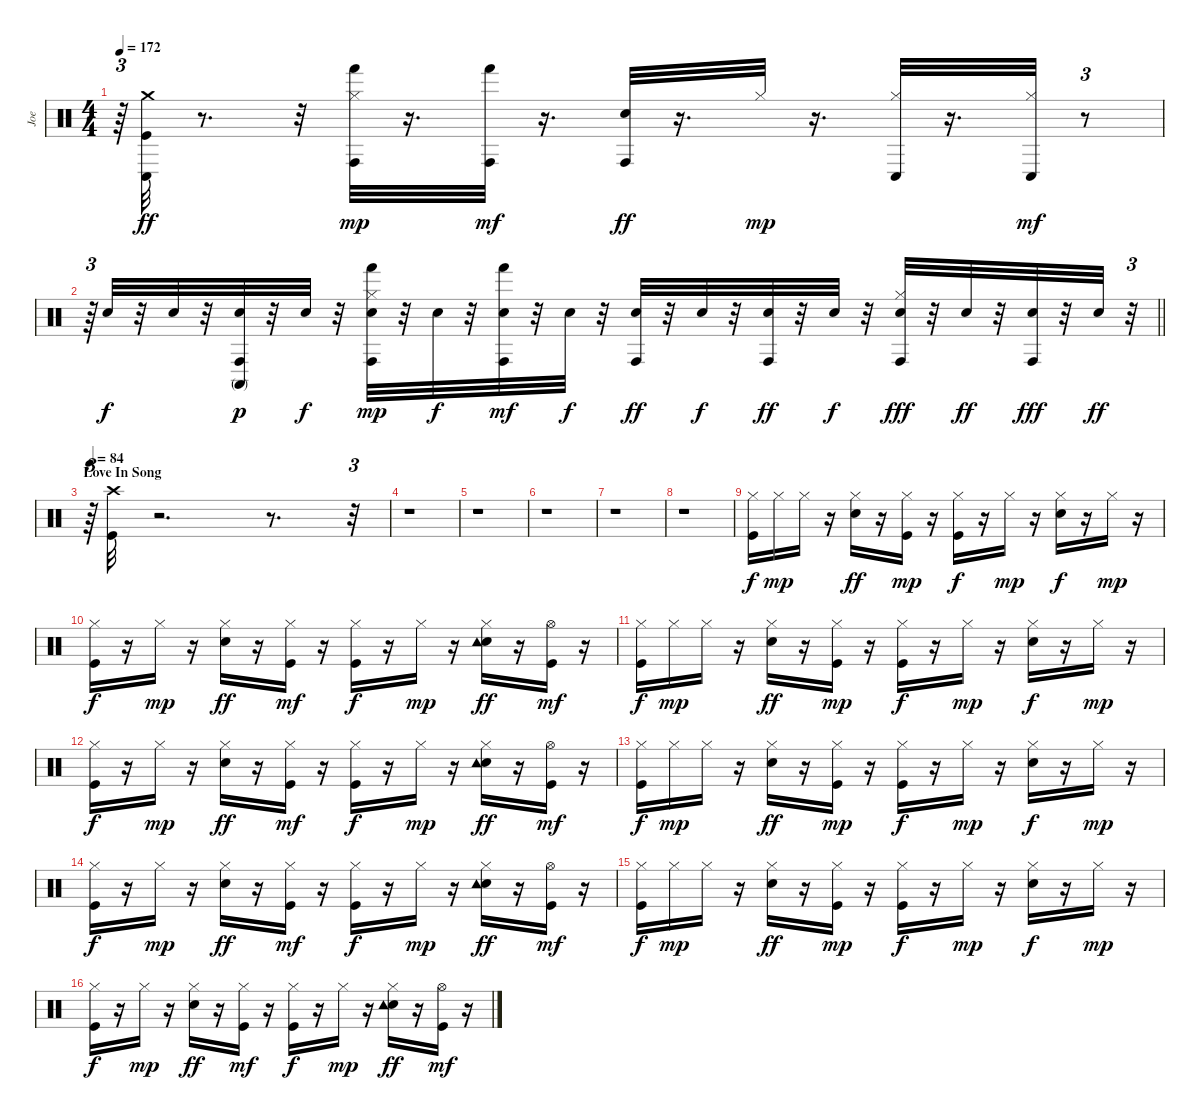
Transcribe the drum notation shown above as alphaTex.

\track ("Joe" "Joe") {instrument percussion}
\staff {score}
\articulation defaults
\ts (4 4)
\tempo 172
\clef neutral
\ks c
r.64{tu (3 2) dy ff} ("Crash medium (hit)" "Conga low (hit)" "Kick (hit)").32 r.8{d} r.32 ("Hi-Hat (closed)" "Hand (hit)" "Conga high (hit)").32{dy mp} r.16{d} ("Hand (hit)" "Conga high (hit)").32{dy mf} r.16{d} ("Snare (hit) 2" "Conga high (hit)").32{dy ff} r.16{d} "Hi-Hat (closed)".32{dy mp} r.16{d} ("Hi-Hat (closed)" "Conga low (hit)").32 r.16{d} ("Hi-Hat (closed)" "Conga low (hit)").32{dy mf} r.8{tu (3 2)} |
\barLineRight lightlight
r.64{tu (3 2)} "Snare (hit) 2".32{dy f} r.32 "Snare (hit) 2".32 r.32 ("Snare (hit) 2" "Conga high (mute)" "Conga high (hit)").32{dy p} r.32 "Snare (hit) 2".32{dy f} r.32 ("Hi-Hat (closed)" "Snare (hit) 2" "Hand (hit)" "Conga high (hit)").32{dy mp} r.32 "Snare (hit) 2".32{dy f} r.32 ("Snare (hit) 2" "Hand (hit)" "Conga high (hit)").32{dy mf} r.32 "Snare (hit) 2".32{dy f} r.32 ("Snare (hit) 2" "Conga high (hit)").32{dy ff} r.32 "Snare (hit) 2".32{dy f} r.32 ("Snare (hit) 2" "Conga high (hit)").32{dy ff} r.32 "Snare (hit) 2".32{dy f} r.32 ("Hi-Hat (closed)" "Snare (hit) 2" "Conga high (hit)").32{dy fff} r.32 "Snare (hit) 2".32{dy ff} r.32 ("Snare (hit) 2" "Conga high (hit)").32{dy fff} r.32 "Snare (hit) 2".32{dy ff} r.32{tu (3 2)} |
\section ("" "Love In Song")
\tempo 84
r.64{tu (3 2)} ("Kick (hit)" "Crash high (hit)").32 r.2{d} r.8{d} r.32{tu (3 2)} |
r.1 |
r.1 |
r.1 |
r.1 |
r.1 |
("Kick (hit)" "Hi-Hat (closed)").16{dy f} "Hi-Hat (closed)".16{dy mp} "Hi-Hat (closed)".16 r.16 ("Snare (hit) 2" "Hi-Hat (closed)").16{dy ff} r.16 ("Kick (hit)" "Hi-Hat (closed)").16{dy mp} r.16 ("Kick (hit)" "Hi-Hat (closed)").16{dy f} r.16 "Hi-Hat (closed)".16{dy mp} r.16 ("Snare (hit) 2" "Hi-Hat (closed)").16{dy f} r.16 "Hi-Hat (closed)".16{dy mp} r.16 |
("Kick (hit)" "Hi-Hat (closed)").16{dy f} r.16 "Hi-Hat (closed)".16{dy mp} r.16 ("Snare (hit) 2" "Hi-Hat (closed)").16{dy ff} r.16 ("Kick (hit)" "Hi-Hat (closed)").16{dy mf} r.16 ("Kick (hit)" "Hi-Hat (closed)").16{dy f} r.16 "Hi-Hat (closed)".16{dy mp} r.16 ("Snare (hit) 2" "Hi-Hat (closed)" "Tambourine (hit)").16{dy ff} r.16 ("Kick (hit)" "Hi-Hat (open)").16{dy mf} r.16 |
("Kick (hit)" "Hi-Hat (closed)").16{dy f} "Hi-Hat (closed)".16{dy mp} "Hi-Hat (closed)".16 r.16 ("Snare (hit) 2" "Hi-Hat (closed)").16{dy ff} r.16 ("Kick (hit)" "Hi-Hat (closed)").16{dy mp} r.16 ("Kick (hit)" "Hi-Hat (closed)").16{dy f} r.16 "Hi-Hat (closed)".16{dy mp} r.16 ("Snare (hit) 2" "Hi-Hat (closed)").16{dy f} r.16 "Hi-Hat (closed)".16{dy mp} r.16 |
("Kick (hit)" "Hi-Hat (closed)").16{dy f} r.16 "Hi-Hat (closed)".16{dy mp} r.16 ("Snare (hit) 2" "Hi-Hat (closed)").16{dy ff} r.16 ("Kick (hit)" "Hi-Hat (closed)").16{dy mf} r.16 ("Kick (hit)" "Hi-Hat (closed)").16{dy f} r.16 "Hi-Hat (closed)".16{dy mp} r.16 ("Snare (hit) 2" "Hi-Hat (closed)" "Tambourine (hit)").16{dy ff} r.16 ("Kick (hit)" "Hi-Hat (open)").16{dy mf} r.16 |
("Kick (hit)" "Hi-Hat (closed)").16{dy f} "Hi-Hat (closed)".16{dy mp} "Hi-Hat (closed)".16 r.16 ("Snare (hit) 2" "Hi-Hat (closed)").16{dy ff} r.16 ("Kick (hit)" "Hi-Hat (closed)").16{dy mp} r.16 ("Kick (hit)" "Hi-Hat (closed)").16{dy f} r.16 "Hi-Hat (closed)".16{dy mp} r.16 ("Snare (hit) 2" "Hi-Hat (closed)").16{dy f} r.16 "Hi-Hat (closed)".16{dy mp} r.16 |
("Kick (hit)" "Hi-Hat (closed)").16{dy f} r.16 "Hi-Hat (closed)".16{dy mp} r.16 ("Snare (hit) 2" "Hi-Hat (closed)").16{dy ff} r.16 ("Kick (hit)" "Hi-Hat (closed)").16{dy mf} r.16 ("Kick (hit)" "Hi-Hat (closed)").16{dy f} r.16 "Hi-Hat (closed)".16{dy mp} r.16 ("Snare (hit) 2" "Hi-Hat (closed)" "Tambourine (hit)").16{dy ff} r.16 ("Kick (hit)" "Hi-Hat (open)").16{dy mf} r.16 |
("Kick (hit)" "Hi-Hat (closed)").16{dy f} "Hi-Hat (closed)".16{dy mp} "Hi-Hat (closed)".16 r.16 ("Snare (hit) 2" "Hi-Hat (closed)").16{dy ff} r.16 ("Kick (hit)" "Hi-Hat (closed)").16{dy mp} r.16 ("Kick (hit)" "Hi-Hat (closed)").16{dy f} r.16 "Hi-Hat (closed)".16{dy mp} r.16 ("Snare (hit) 2" "Hi-Hat (closed)").16{dy f} r.16 "Hi-Hat (closed)".16{dy mp} r.16 |
("Kick (hit)" "Hi-Hat (closed)").16{dy f} r.16 "Hi-Hat (closed)".16{dy mp} r.16 ("Snare (hit) 2" "Hi-Hat (closed)").16{dy ff} r.16 ("Kick (hit)" "Hi-Hat (closed)").16{dy mf} r.16 ("Kick (hit)" "Hi-Hat (closed)").16{dy f} r.16 "Hi-Hat (closed)".16{dy mp} r.16 ("Snare (hit) 2" "Hi-Hat (closed)" "Tambourine (hit)").16{dy ff} r.16 ("Kick (hit)" "Hi-Hat (open)").16{dy mf} r.16
